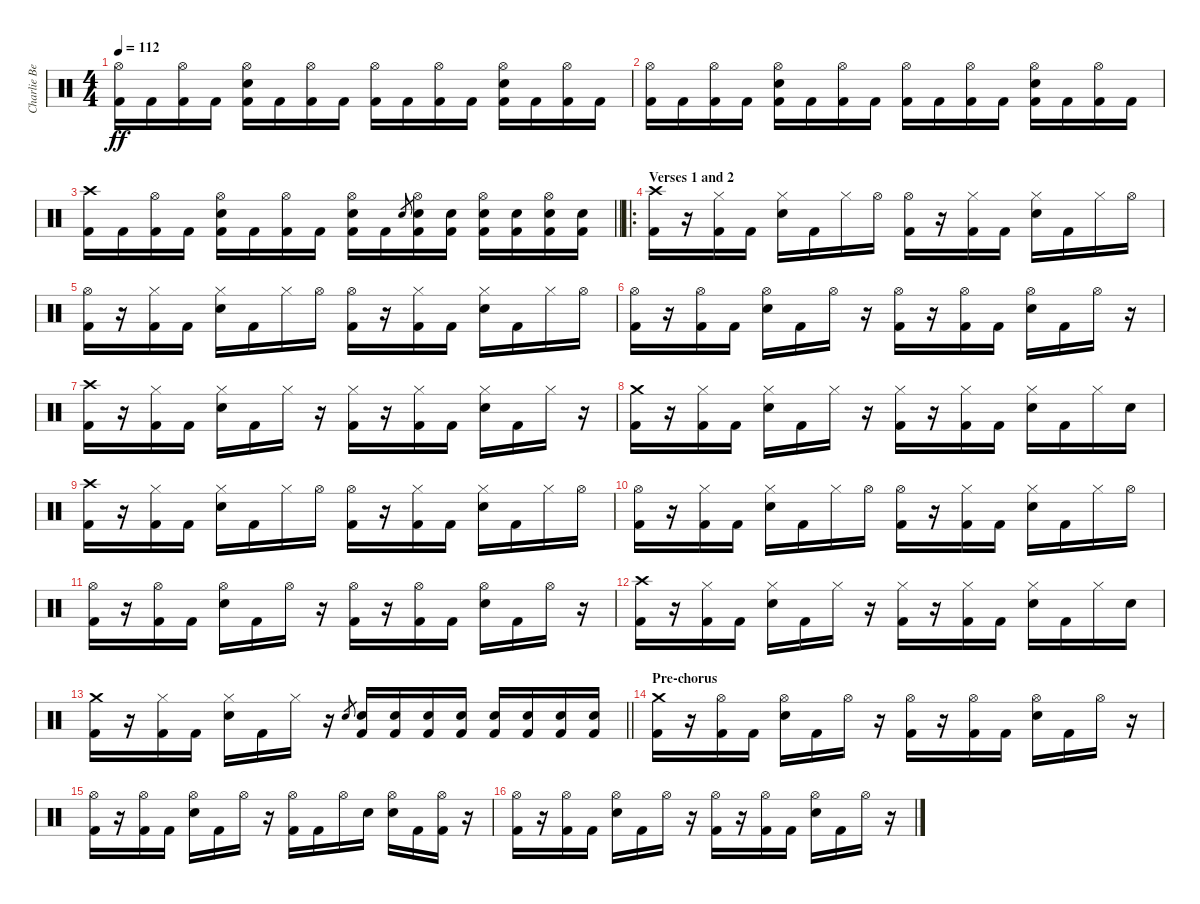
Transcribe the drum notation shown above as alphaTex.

\track ("Charlie Benante" "Charlie Be") {instrument percussion}
\staff {score}
\articulation defaults
\ts (4 4)
\tempo 112
\clef neutral
\ks c
("Hi-Hat (open)" "Kick (hit) 2").16{dy ff} "Kick (hit) 2".16 ("Hi-Hat (open)" "Kick (hit) 2").16 "Kick (hit) 2".16 ("Hi-Hat (open)" "Snare (hit) 2" "Kick (hit) 2").16 "Kick (hit) 2".16 ("Hi-Hat (open)" "Kick (hit) 2").16 "Kick (hit) 2".16 ("Hi-Hat (open)" "Kick (hit) 2").16 "Kick (hit) 2".16 ("Hi-Hat (open)" "Kick (hit) 2").16 "Kick (hit) 2".16 ("Hi-Hat (open)" "Snare (hit) 2" "Kick (hit) 2").16 "Kick (hit) 2".16 ("Hi-Hat (open)" "Kick (hit) 2").16 "Kick (hit) 2".16 |
("Hi-Hat (open)" "Kick (hit) 2").16 "Kick (hit) 2".16 ("Hi-Hat (open)" "Kick (hit) 2").16 "Kick (hit) 2".16 ("Hi-Hat (open)" "Snare (hit) 2" "Kick (hit) 2").16 "Kick (hit) 2".16 ("Hi-Hat (open)" "Kick (hit) 2").16 "Kick (hit) 2".16 ("Hi-Hat (open)" "Kick (hit) 2").16 "Kick (hit) 2".16 ("Hi-Hat (open)" "Kick (hit) 2").16 "Kick (hit) 2".16 ("Hi-Hat (open)" "Snare (hit) 2" "Kick (hit) 2").16 "Kick (hit) 2".16 ("Hi-Hat (open)" "Kick (hit) 2").16 "Kick (hit) 2".16 |
\barLineRight lightlight
("Crash high (hit)" "Kick (hit) 2").16 "Kick (hit) 2".16 ("Hi-Hat (open)" "Kick (hit) 2").16 "Kick (hit) 2".16 ("Hi-Hat (open)" "Snare (hit) 2" "Kick (hit) 2").16 "Kick (hit) 2".16 ("Hi-Hat (open)" "Kick (hit) 2").16 "Kick (hit) 2".16 ("Hi-Hat (open)" "Snare (hit) 2" "Kick (hit) 2").16 "Kick (hit) 2".16 "Snare (hit) 2".8{gr} ("Hi-Hat (open)" "Snare (hit) 2" "Kick (hit) 2").16 ("Snare (hit) 2" "Kick (hit) 2").16 ("Hi-Hat (open)" "Snare (hit) 2" "Kick (hit) 2").16 ("Snare (hit) 2" "Kick (hit) 2").16 ("Hi-Hat (open)" "Snare (hit) 2" "Kick (hit) 2").16 ("Snare (hit) 2" "Kick (hit) 2").16 |
\ro
\section ("" "Verses 1 and 2")
("Crash high (hit)" "Kick (hit) 2").16 r.16 ("Hi-Hat (closed)" "Kick (hit) 2").16 "Kick (hit) 2".16 ("Hi-Hat (closed)" "Snare (hit) 2").16 "Kick (hit) 2".16 "Hi-Hat (closed)".16 "Hi-Hat (open)".16 ("Hi-Hat (open)" "Kick (hit) 2").16 r.16 ("Hi-Hat (closed)" "Kick (hit) 2").16 "Kick (hit) 2".16 ("Hi-Hat (closed)" "Snare (hit) 2").16 "Kick (hit) 2".16 "Hi-Hat (closed)".16 "Hi-Hat (open)".16 |
("Hi-Hat (open)" "Kick (hit) 2").16 r.16 ("Hi-Hat (closed)" "Kick (hit) 2").16 "Kick (hit) 2".16 ("Hi-Hat (closed)" "Snare (hit) 2").16 "Kick (hit) 2".16 "Hi-Hat (closed)".16 "Hi-Hat (open)".16 ("Hi-Hat (open)" "Kick (hit) 2").16 r.16 ("Hi-Hat (closed)" "Kick (hit) 2").16 "Kick (hit) 2".16 ("Hi-Hat (closed)" "Snare (hit) 2").16 "Kick (hit) 2".16 "Hi-Hat (closed)".16 "Hi-Hat (open)".16 |
("Hi-Hat (open)" "Kick (hit) 2").16 r.16 ("Hi-Hat (open)" "Kick (hit) 2").16 "Kick (hit) 2".16 ("Hi-Hat (open)" "Snare (hit) 2").16 "Kick (hit) 2".16 "Hi-Hat (open)".16 r.16 ("Hi-Hat (open)" "Kick (hit) 2").16 r.16 ("Hi-Hat (open)" "Kick (hit) 2").16 "Kick (hit) 2".16 ("Hi-Hat (open)" "Snare (hit) 2").16 "Kick (hit) 2".16 "Hi-Hat (open)".16 r.16 |
("Crash high (hit)" "Kick (hit) 2").16 r.16 ("Hi-Hat (closed)" "Kick (hit) 2").16 "Kick (hit) 2".16 ("Hi-Hat (closed)" "Snare (hit) 2").16 "Kick (hit) 2".16 "Hi-Hat (closed)".16 r.16 ("Hi-Hat (closed)" "Kick (hit) 2").16 r.16 ("Hi-Hat (closed)" "Kick (hit) 2").16 "Kick (hit) 2".16 ("Hi-Hat (closed)" "Snare (hit) 2").16 "Kick (hit) 2".16 "Hi-Hat (closed)".16 r.16 |
("Crash medium (hit)" "Kick (hit) 2").16 r.16 ("Hi-Hat (closed)" "Kick (hit) 2").16 "Kick (hit) 2".16 ("Hi-Hat (closed)" "Snare (hit) 2").16 "Kick (hit) 2".16 "Hi-Hat (closed)".16 r.16 ("Hi-Hat (closed)" "Kick (hit) 2").16 r.16 ("Hi-Hat (closed)" "Kick (hit) 2").16 "Kick (hit) 2".16 ("Hi-Hat (closed)" "Snare (hit) 2").16 "Kick (hit) 2".16 "Hi-Hat (closed)".16 "Snare (hit) 2".16 |
("Crash high (hit)" "Kick (hit) 2").16 r.16 ("Hi-Hat (closed)" "Kick (hit) 2").16 "Kick (hit) 2".16 ("Hi-Hat (closed)" "Snare (hit) 2").16 "Kick (hit) 2".16 "Hi-Hat (closed)".16 "Hi-Hat (open)".16 ("Hi-Hat (open)" "Kick (hit) 2").16 r.16 ("Hi-Hat (closed)" "Kick (hit) 2").16 "Kick (hit) 2".16 ("Hi-Hat (closed)" "Snare (hit) 2").16 "Kick (hit) 2".16 "Hi-Hat (closed)".16 "Hi-Hat (open)".16 |
("Hi-Hat (open)" "Kick (hit) 2").16 r.16 ("Hi-Hat (closed)" "Kick (hit) 2").16 "Kick (hit) 2".16 ("Hi-Hat (closed)" "Snare (hit) 2").16 "Kick (hit) 2".16 "Hi-Hat (closed)".16 "Hi-Hat (open)".16 ("Hi-Hat (open)" "Kick (hit) 2").16 r.16 ("Hi-Hat (closed)" "Kick (hit) 2").16 "Kick (hit) 2".16 ("Hi-Hat (closed)" "Snare (hit) 2").16 "Kick (hit) 2".16 "Hi-Hat (closed)".16 "Hi-Hat (open)".16 |
("Hi-Hat (open)" "Kick (hit) 2").16 r.16 ("Hi-Hat (open)" "Kick (hit) 2").16 "Kick (hit) 2".16 ("Hi-Hat (open)" "Snare (hit) 2").16 "Kick (hit) 2".16 "Hi-Hat (open)".16 r.16 ("Hi-Hat (open)" "Kick (hit) 2").16 r.16 ("Hi-Hat (open)" "Kick (hit) 2").16 "Kick (hit) 2".16 ("Hi-Hat (open)" "Snare (hit) 2").16 "Kick (hit) 2".16 "Hi-Hat (open)".16 r.16 |
("Crash high (hit)" "Kick (hit) 2").16 r.16 ("Hi-Hat (closed)" "Kick (hit) 2").16 "Kick (hit) 2".16 ("Hi-Hat (closed)" "Snare (hit) 2").16 "Kick (hit) 2".16 "Hi-Hat (closed)".16 r.16 ("Hi-Hat (closed)" "Kick (hit) 2").16 r.16 ("Hi-Hat (closed)" "Kick (hit) 2").16 "Kick (hit) 2".16 ("Hi-Hat (closed)" "Snare (hit) 2").16 "Kick (hit) 2".16 "Hi-Hat (closed)".16 "Snare (hit) 2".16 |
\barLineRight lightlight
("Crash medium (hit)" "Kick (hit) 2").16 r.16 ("Hi-Hat (closed)" "Kick (hit) 2").16 "Kick (hit) 2".16 ("Hi-Hat (closed)" "Snare (hit) 2").16 "Kick (hit) 2".16 "Hi-Hat (closed)".16 r.16 "Snare (hit) 2".8{gr} ("Snare (hit) 2" "Kick (hit) 2").16 ("Snare (hit) 2" "Kick (hit) 2").16 ("Snare (hit) 2" "Kick (hit) 2").16 ("Snare (hit) 2" "Kick (hit) 2").16 ("Snare (hit) 2" "Kick (hit) 2").16 ("Snare (hit) 2" "Kick (hit) 2").16 ("Snare (hit) 2" "Kick (hit) 2").16 ("Snare (hit) 2" "Kick (hit) 2").16 |
\section ("" "Pre-chorus")
("Crash medium (hit)" "Kick (hit) 2").16 r.16 ("Hi-Hat (open)" "Kick (hit) 2").16 "Kick (hit) 2".16 ("Hi-Hat (open)" "Snare (hit) 2").16 "Kick (hit) 2".16 "Hi-Hat (open)".16 r.16 ("Hi-Hat (open)" "Kick (hit) 2").16 r.16 ("Hi-Hat (open)" "Kick (hit) 2").16 "Kick (hit) 2".16 ("Hi-Hat (open)" "Snare (hit) 2").16 "Kick (hit) 2".16 "Hi-Hat (open)".16 r.16 |
("Hi-Hat (open)" "Kick (hit) 2").16 r.16 ("Hi-Hat (open)" "Kick (hit) 2").16 "Kick (hit) 2".16 ("Hi-Hat (open)" "Snare (hit) 2").16 "Kick (hit) 2".16 "Hi-Hat (open)".16 r.16 ("Hi-Hat (open)" "Kick (hit) 2").16 "Kick (hit) 2".16 "Hi-Hat (open)".16 "Snare (hit) 2".16 ("Hi-Hat (open)" "Snare (hit) 2").16 "Kick (hit) 2".16 ("Hi-Hat (open)" "Kick (hit) 2").16 r.16 |
("Hi-Hat (open)" "Kick (hit) 2").16 r.16 ("Hi-Hat (open)" "Kick (hit) 2").16 "Kick (hit) 2".16 ("Hi-Hat (open)" "Snare (hit) 2").16 "Kick (hit) 2".16 "Hi-Hat (open)".16 r.16 ("Hi-Hat (open)" "Kick (hit) 2").16 r.16 ("Hi-Hat (open)" "Kick (hit) 2").16 "Kick (hit) 2".16 ("Hi-Hat (open)" "Snare (hit) 2").16 "Kick (hit) 2".16 "Hi-Hat (open)".16 r.16
